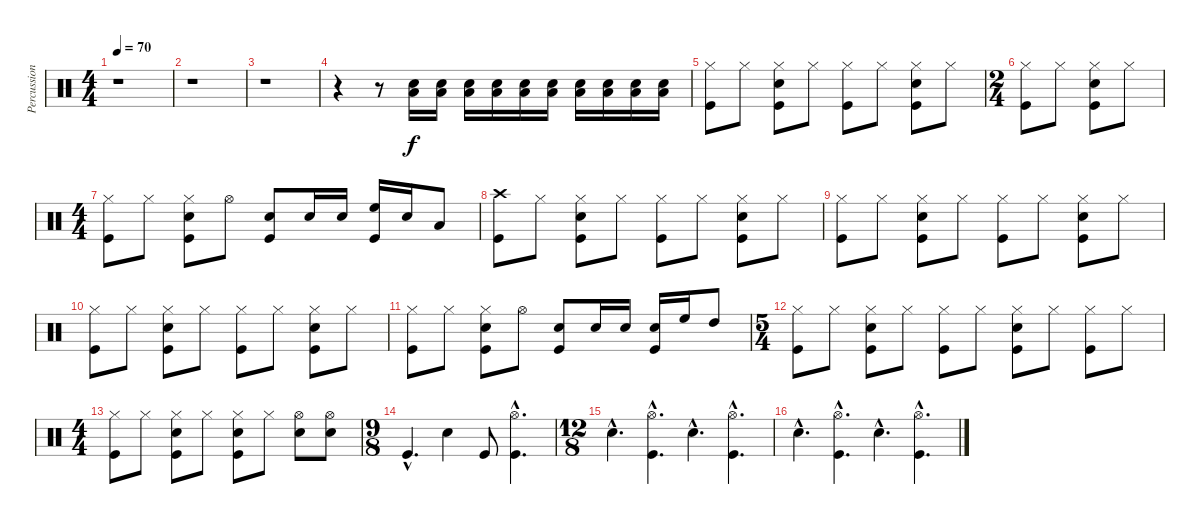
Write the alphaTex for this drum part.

\track ("Percussion" "Percussion") {instrument percussion}
\staff {score}
\articulation defaults
\ts (4 4)
\tempo 70
\clef neutral
\ks c
r.1{dy f} |
r.1 |
r.1 |
r.4 r.8 ("Snare (hit) 2" "Low Floor Tom (hit)").16 ("Snare (hit) 2" "Low Floor Tom (hit)").16 ("Snare (hit) 2" "Low Floor Tom (hit)").16 ("Snare (hit) 2" "Low Floor Tom (hit)").16 ("Snare (hit) 2" "Low Floor Tom (hit)").16 ("Snare (hit) 2" "Low Floor Tom (hit)").16 ("Snare (hit) 2" "Low Floor Tom (hit)").16 ("Snare (hit) 2" "Low Floor Tom (hit)").16 ("Snare (hit) 2" "Low Floor Tom (hit)").16 ("Snare (hit) 2" "Low Floor Tom (hit)").16 |
("Hi-Hat (closed)" "Kick (hit)").8 "Hi-Hat (closed)".8 ("Hi-Hat (closed)" "Snare (hit) 2" "Kick (hit)").8 "Hi-Hat (closed)".8 ("Hi-Hat (closed)" "Kick (hit)").8 "Hi-Hat (closed)".8 ("Hi-Hat (closed)" "Snare (hit) 2" "Kick (hit)").8 "Hi-Hat (closed)".8 |
\ts (2 4)
("Hi-Hat (closed)" "Kick (hit)").8 "Hi-Hat (closed)".8 ("Hi-Hat (closed)" "Snare (hit) 2" "Kick (hit)").8 "Hi-Hat (closed)".8 |
\ts (4 4)
("Hi-Hat (closed)" "Kick (hit)").8 "Hi-Hat (closed)".8 ("Hi-Hat (closed)" "Snare (hit) 2" "Kick (hit)").8 "Hi-Hat (open)".8 ("Snare (hit) 2" "Kick (hit)").8 "Snare (hit) 2".16 "Snare (hit) 2".16 ("High Floor Tom (hit)" "Kick (hit)").16 "Snare (hit) 2".16 "Low Floor Tom (hit)".8 |
("Crash high (hit)" "Kick (hit)").8 "Hi-Hat (closed)".8 ("Hi-Hat (closed)" "Snare (hit) 2" "Kick (hit)").8 "Hi-Hat (closed)".8 ("Hi-Hat (closed)" "Kick (hit)").8 "Hi-Hat (closed)".8 ("Hi-Hat (closed)" "Snare (hit) 2" "Kick (hit)").8 "Hi-Hat (closed)".8 |
("Hi-Hat (closed)" "Kick (hit)").8 "Hi-Hat (closed)".8 ("Hi-Hat (closed)" "Snare (hit) 2" "Kick (hit)").8 "Hi-Hat (closed)".8 ("Hi-Hat (closed)" "Kick (hit)").8 "Hi-Hat (closed)".8 ("Hi-Hat (closed)" "Snare (hit) 2" "Kick (hit)").8 "Hi-Hat (closed)".8 |
("Hi-Hat (closed)" "Kick (hit)").8 "Hi-Hat (closed)".8 ("Hi-Hat (closed)" "Snare (hit) 2" "Kick (hit)").8 "Hi-Hat (closed)".8 ("Hi-Hat (closed)" "Kick (hit)").8 "Hi-Hat (closed)".8 ("Hi-Hat (closed)" "Snare (hit) 2" "Kick (hit)").8 "Hi-Hat (closed)".8 |
("Hi-Hat (closed)" "Kick (hit)").8 "Hi-Hat (closed)".8 ("Hi-Hat (closed)" "Snare (hit) 2" "Kick (hit)").8 "Hi-Hat (open)".8 ("Snare (hit) 2" "Kick (hit)").8 "Snare (hit) 2".16 "Snare (hit) 2".16 ("Snare (hit) 2" "Kick (hit)").16 "High Floor Tom (hit)".16 "High Tom (hit)".8 |
\ts (5 4)
("Hi-Hat (closed)" "Kick (hit)").8 "Hi-Hat (closed)".8 ("Hi-Hat (closed)" "Snare (hit) 2" "Kick (hit)").8 "Hi-Hat (closed)".8 ("Hi-Hat (closed)" "Kick (hit)").8 "Hi-Hat (closed)".8 ("Hi-Hat (closed)" "Snare (hit) 2" "Kick (hit)").8 "Hi-Hat (closed)".8 ("Hi-Hat (closed)" "Kick (hit)").8 "Hi-Hat (closed)".8 |
\ts (4 4)
("Hi-Hat (closed)" "Kick (hit)").8 "Hi-Hat (closed)".8 ("Hi-Hat (closed)" "Snare (hit) 2" "Kick (hit)").8 "Hi-Hat (closed)".8 ("Hi-Hat (closed)" "Snare (hit) 2" "Kick (hit)").8 "Hi-Hat (closed)".8 ("Hi-Hat (open)" "Snare (hit) 2").8 ("Hi-Hat (open)" "Snare (hit) 2").8 |
\ts (9 8)
"Kick (hit)"{hac}.4{d} "Snare (hit) 2".4 "Kick (hit)".8 ("Hi-Hat (open)"{hac} "Kick (hit)"{hac}).4{d} |
\ts (12 8)
"Snare (hit) 2"{hac}.4{d} ("Hi-Hat (open)"{hac} "Kick (hit)"{hac}).4{d} "Snare (hit) 2"{hac}.4{d} ("Hi-Hat (open)"{hac} "Kick (hit)"{hac}).4{d} |
"Snare (hit) 2"{hac}.4{d} ("Hi-Hat (open)"{hac} "Kick (hit)"{hac}).4{d} "Snare (hit) 2"{hac}.4{d} ("Hi-Hat (open)"{hac} "Kick (hit)"{hac}).4{d}
